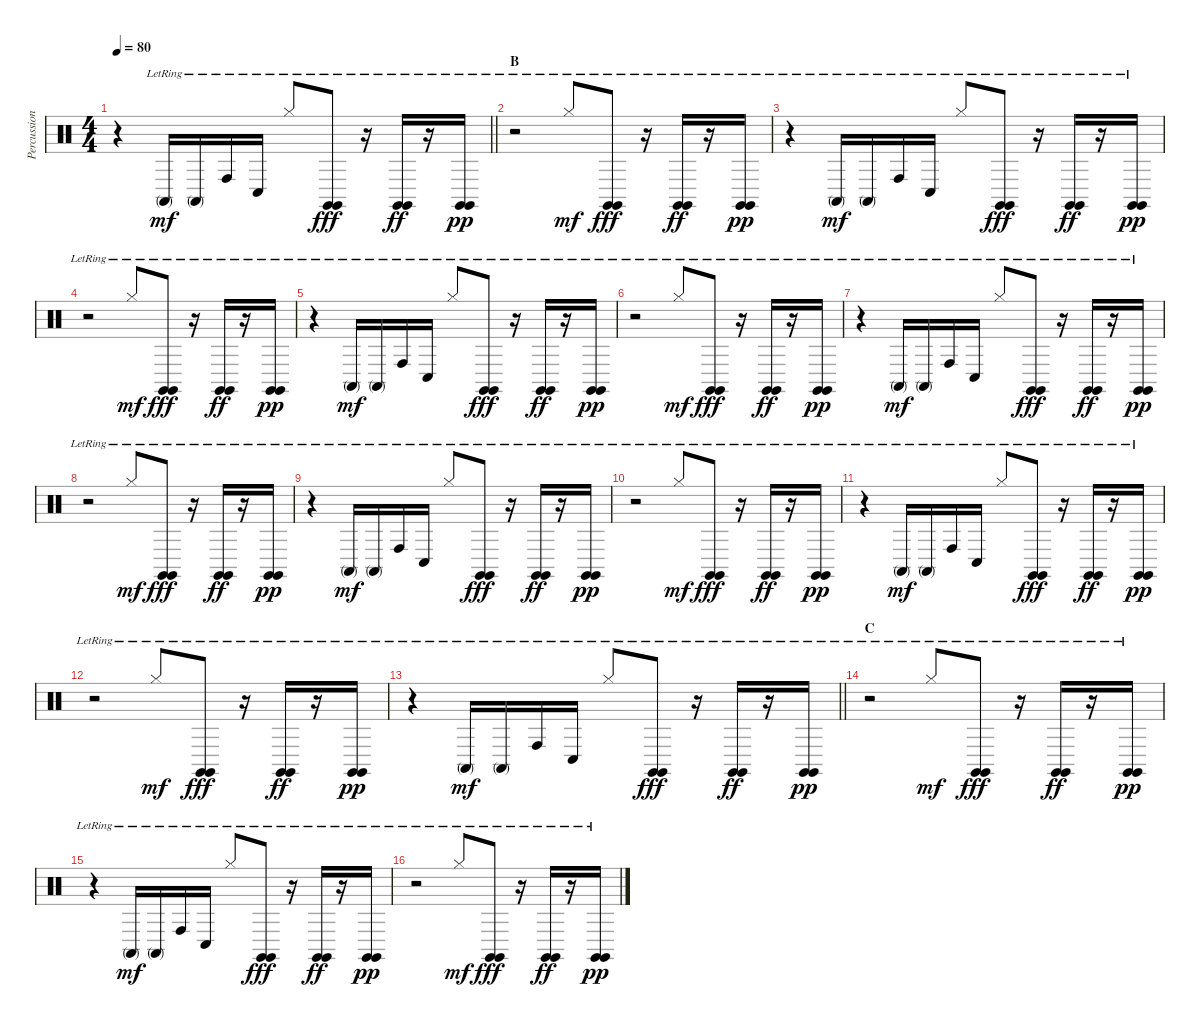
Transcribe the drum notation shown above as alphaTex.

\track ("Percussion" "Percussion") {instrument percussion}
\staff {score}
\articulation defaults
\ts (4 4)
\tempo 80
\clef neutral
\barLineRight lightlight
\ks c
r.4{dy pp} "Conga high (mute)"{lr}.16{dy mf} "Conga high (mute)"{lr}.16 "Conga high (hit)"{lr}.16{balance 5} "Conga low (hit)"{lr}.16{balance 3} "Hi-Hat (closed)"{lr}.8 ("Claves (hit)"{lr} "Claves (hit)"{lr}).8{dy fff balance 13} r.16 ("Claves (hit)"{lr} "Claves (hit)"{lr}).16{dy ff} r.16 ("Claves (hit)"{lr} "Claves (hit)"{lr}).16{dy pp} |
\section ("" "B")
r.2 "Hi-Hat (closed)"{lr}.8{dy mf balance 3} ("Claves (hit)"{lr} "Claves (hit)"{lr}).8{dy fff balance 13} r.16 ("Claves (hit)"{lr} "Claves (hit)"{lr}).16{dy ff} r.16 ("Claves (hit)"{lr} "Claves (hit)"{lr}).16{dy pp} |
r.4 "Conga high (mute)"{lr}.16{dy mf} "Conga high (mute)"{lr}.16 "Conga high (hit)"{lr}.16{balance 5} "Conga low (hit)"{lr}.16{balance 3} "Hi-Hat (closed)"{lr}.8 ("Claves (hit)"{lr} "Claves (hit)"{lr}).8{dy fff balance 13} r.16 ("Claves (hit)"{lr} "Claves (hit)"{lr}).16{dy ff} r.16 ("Claves (hit)"{lr} "Claves (hit)"{lr}).16{dy pp} |
r.2 "Hi-Hat (closed)"{lr}.8{dy mf balance 3} ("Claves (hit)"{lr} "Claves (hit)"{lr}).8{dy fff balance 13} r.16 ("Claves (hit)"{lr} "Claves (hit)"{lr}).16{dy ff} r.16 ("Claves (hit)"{lr} "Claves (hit)"{lr}).16{dy pp} |
r.4 "Conga high (mute)"{lr}.16{dy mf} "Conga high (mute)"{lr}.16 "Conga high (hit)"{lr}.16{balance 5} "Conga low (hit)"{lr}.16{balance 3} "Hi-Hat (closed)"{lr}.8 ("Claves (hit)"{lr} "Claves (hit)"{lr}).8{dy fff balance 13} r.16 ("Claves (hit)"{lr} "Claves (hit)"{lr}).16{dy ff} r.16 ("Claves (hit)"{lr} "Claves (hit)"{lr}).16{dy pp} |
r.2 "Hi-Hat (closed)"{lr}.8{dy mf balance 3} ("Claves (hit)"{lr} "Claves (hit)"{lr}).8{dy fff balance 13} r.16 ("Claves (hit)"{lr} "Claves (hit)"{lr}).16{dy ff} r.16 ("Claves (hit)"{lr} "Claves (hit)"{lr}).16{dy pp} |
r.4 "Conga high (mute)"{lr}.16{dy mf} "Conga high (mute)"{lr}.16 "Conga high (hit)"{lr}.16{balance 5} "Conga low (hit)"{lr}.16{balance 3} "Hi-Hat (closed)"{lr}.8 ("Claves (hit)"{lr} "Claves (hit)"{lr}).8{dy fff balance 13} r.16 ("Claves (hit)"{lr} "Claves (hit)"{lr}).16{dy ff} r.16 ("Claves (hit)"{lr} "Claves (hit)"{lr}).16{dy pp} |
r.2 "Hi-Hat (closed)"{lr}.8{dy mf balance 3} ("Claves (hit)"{lr} "Claves (hit)"{lr}).8{dy fff balance 13} r.16 ("Claves (hit)"{lr} "Claves (hit)"{lr}).16{dy ff} r.16 ("Claves (hit)"{lr} "Claves (hit)"{lr}).16{dy pp} |
r.4 "Conga high (mute)"{lr}.16{dy mf} "Conga high (mute)"{lr}.16 "Conga high (hit)"{lr}.16{balance 5} "Conga low (hit)"{lr}.16{balance 3} "Hi-Hat (closed)"{lr}.8 ("Claves (hit)"{lr} "Claves (hit)"{lr}).8{dy fff balance 13} r.16 ("Claves (hit)"{lr} "Claves (hit)"{lr}).16{dy ff} r.16 ("Claves (hit)"{lr} "Claves (hit)"{lr}).16{dy pp} |
r.2 "Hi-Hat (closed)"{lr}.8{dy mf balance 3} ("Claves (hit)"{lr} "Claves (hit)"{lr}).8{dy fff balance 13} r.16 ("Claves (hit)"{lr} "Claves (hit)"{lr}).16{dy ff} r.16 ("Claves (hit)"{lr} "Claves (hit)"{lr}).16{dy pp} |
r.4 "Conga high (mute)"{lr}.16{dy mf} "Conga high (mute)"{lr}.16 "Conga high (hit)"{lr}.16{balance 5} "Conga low (hit)"{lr}.16{balance 3} "Hi-Hat (closed)"{lr}.8 ("Claves (hit)"{lr} "Claves (hit)"{lr}).8{dy fff balance 13} r.16 ("Claves (hit)"{lr} "Claves (hit)"{lr}).16{dy ff} r.16 ("Claves (hit)"{lr} "Claves (hit)"{lr}).16{dy pp} |
r.2 "Hi-Hat (closed)"{lr}.8{dy mf balance 3} ("Claves (hit)"{lr} "Claves (hit)"{lr}).8{dy fff balance 13} r.16 ("Claves (hit)"{lr} "Claves (hit)"{lr}).16{dy ff} r.16 ("Claves (hit)"{lr} "Claves (hit)"{lr}).16{dy pp} |
\barLineRight lightlight
r.4 "Conga high (mute)"{lr}.16{dy mf} "Conga high (mute)"{lr}.16 "Conga high (hit)"{lr}.16{balance 5} "Conga low (hit)"{lr}.16{balance 3} "Hi-Hat (closed)"{lr}.8 ("Claves (hit)"{lr} "Claves (hit)"{lr}).8{dy fff balance 13} r.16 ("Claves (hit)"{lr} "Claves (hit)"{lr}).16{dy ff} r.16 ("Claves (hit)"{lr} "Claves (hit)"{lr}).16{dy pp} |
\section ("" "C")
r.2 "Hi-Hat (closed)"{lr}.8{dy mf balance 3} ("Claves (hit)"{lr} "Claves (hit)"{lr}).8{dy fff balance 13} r.16 ("Claves (hit)"{lr} "Claves (hit)"{lr}).16{dy ff} r.16 ("Claves (hit)"{lr} "Claves (hit)"{lr}).16{dy pp} |
r.4 "Conga high (mute)"{lr}.16{dy mf} "Conga high (mute)"{lr}.16 "Conga high (hit)"{lr}.16{balance 5} "Conga low (hit)"{lr}.16{balance 3} "Hi-Hat (closed)"{lr}.8 ("Claves (hit)"{lr} "Claves (hit)"{lr}).8{dy fff balance 13} r.16 ("Claves (hit)"{lr} "Claves (hit)"{lr}).16{dy ff} r.16 ("Claves (hit)"{lr} "Claves (hit)"{lr}).16{dy pp} |
r.2 "Hi-Hat (closed)"{lr}.8{dy mf balance 3} ("Claves (hit)"{lr} "Claves (hit)"{lr}).8{dy fff balance 13} r.16 ("Claves (hit)"{lr} "Claves (hit)"{lr}).16{dy ff} r.16 ("Claves (hit)"{lr} "Claves (hit)"{lr}).16{dy pp}
